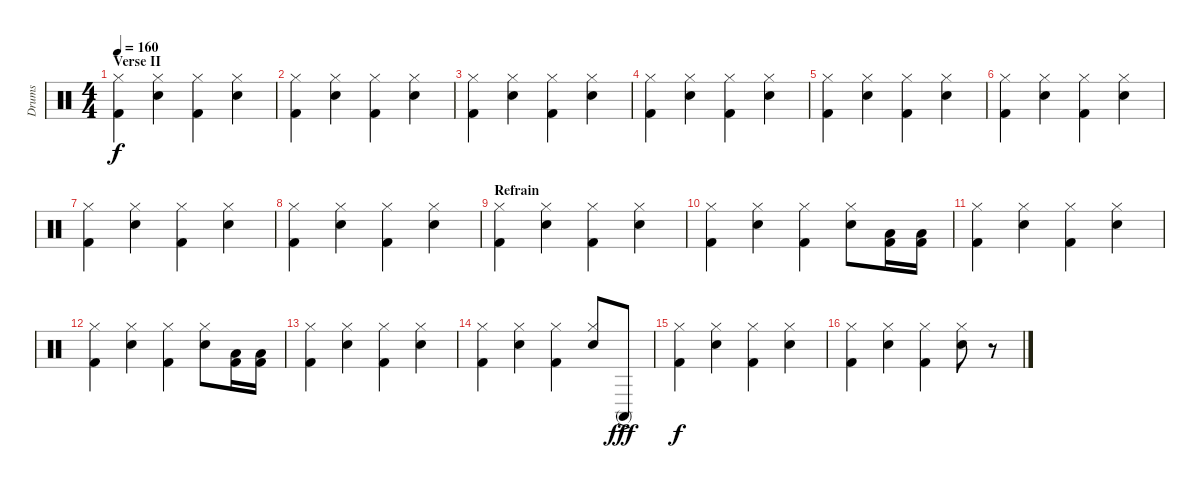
\track ("Drums" "Drums") {instrument percussion}
\staff {score}
\articulation defaults
\ts (4 4)
\section ("" "Verse II")
\tempo 160
\clef neutral
\ks c
("Hi-Hat (closed)" "Kick (hit) 2").4{dy f} ("Hi-Hat (closed)" "Snare (hit) 2").4 ("Hi-Hat (closed)" "Kick (hit) 2").4 ("Hi-Hat (closed)" "Snare (hit) 2").4 |
("Hi-Hat (closed)" "Kick (hit) 2").4 ("Hi-Hat (closed)" "Snare (hit) 2").4 ("Hi-Hat (closed)" "Kick (hit) 2").4 ("Hi-Hat (closed)" "Snare (hit) 2").4 |
("Hi-Hat (closed)" "Kick (hit) 2").4 ("Hi-Hat (closed)" "Snare (hit) 2").4 ("Hi-Hat (closed)" "Kick (hit) 2").4 ("Hi-Hat (closed)" "Snare (hit) 2").4 |
("Hi-Hat (closed)" "Kick (hit) 2").4 ("Hi-Hat (closed)" "Snare (hit) 2").4 ("Hi-Hat (closed)" "Kick (hit) 2").4 ("Hi-Hat (closed)" "Snare (hit) 2").4 |
("Hi-Hat (closed)" "Kick (hit) 2").4 ("Hi-Hat (closed)" "Snare (hit) 2").4 ("Hi-Hat (closed)" "Kick (hit) 2").4 ("Hi-Hat (closed)" "Snare (hit) 2").4 |
("Hi-Hat (closed)" "Kick (hit) 2").4 ("Hi-Hat (closed)" "Snare (hit) 2").4 ("Hi-Hat (closed)" "Kick (hit) 2").4 ("Hi-Hat (closed)" "Snare (hit) 2").4 |
("Hi-Hat (closed)" "Kick (hit) 2").4 ("Hi-Hat (closed)" "Snare (hit) 2").4 ("Hi-Hat (closed)" "Kick (hit) 2").4 ("Hi-Hat (closed)" "Snare (hit) 2").4 |
("Hi-Hat (closed)" "Kick (hit) 2").4 ("Hi-Hat (closed)" "Snare (hit) 2").4 ("Hi-Hat (closed)" "Kick (hit) 2").4 ("Hi-Hat (closed)" "Snare (hit) 2").4 |
\section ("" "Refrain")
("Hi-Hat (closed)" "Kick (hit) 2").4 ("Hi-Hat (closed)" "Snare (hit) 2").4 ("Hi-Hat (closed)" "Kick (hit) 2").4 ("Hi-Hat (closed)" "Snare (hit) 2").4 |
("Hi-Hat (closed)" "Kick (hit) 2").4 ("Hi-Hat (closed)" "Snare (hit) 2").4 ("Hi-Hat (closed)" "Kick (hit) 2").4 ("Hi-Hat (closed)" "Snare (hit) 2").8 ("Low Tom (hit)" "Kick (hit) 2").16 ("Low Floor Tom (hit)" "Kick (hit) 2").16 |
("Hi-Hat (closed)" "Kick (hit) 2").4 ("Hi-Hat (closed)" "Snare (hit) 2").4 ("Hi-Hat (closed)" "Kick (hit) 2").4 ("Hi-Hat (closed)" "Snare (hit) 2").4 |
("Hi-Hat (closed)" "Kick (hit) 2").4 ("Hi-Hat (closed)" "Snare (hit) 2").4 ("Hi-Hat (closed)" "Kick (hit) 2").4 ("Hi-Hat (closed)" "Snare (hit) 2").8 ("Low Tom (hit)" "Kick (hit) 2").16 ("Low Floor Tom (hit)" "Kick (hit) 2").16 |
("Hi-Hat (closed)" "Kick (hit) 2").4 ("Hi-Hat (closed)" "Snare (hit) 2").4 ("Hi-Hat (closed)" "Kick (hit) 2").4 ("Hi-Hat (closed)" "Snare (hit) 2").4 |
("Hi-Hat (closed)" "Kick (hit) 2").4 ("Hi-Hat (closed)" "Snare (hit) 2").4 ("Hi-Hat (closed)" "Kick (hit) 2").4 ("Hi-Hat (closed)" "Snare (hit) 2").8 "Conga high (mute)"{ac}.8{dy fff} |
("Hi-Hat (closed)" "Kick (hit) 2").4{dy f} ("Hi-Hat (closed)" "Snare (hit) 2").4 ("Hi-Hat (closed)" "Kick (hit) 2").4 ("Hi-Hat (closed)" "Snare (hit) 2").4 |
("Hi-Hat (closed)" "Kick (hit) 2").4 ("Hi-Hat (closed)" "Snare (hit) 2").4 ("Hi-Hat (closed)" "Kick (hit) 2").4 ("Hi-Hat (closed)" "Snare (hit) 2").8 r.8
